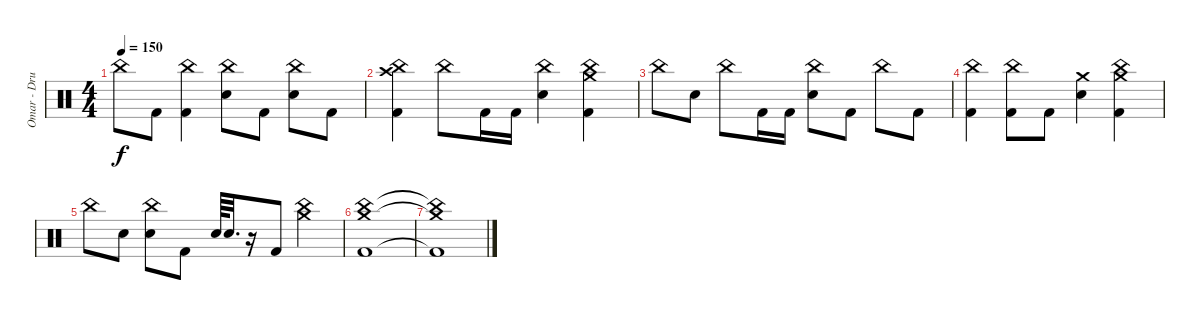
\track ("Omar - Drums" "Omar - Dru") {instrument percussion}
\staff {score}
\articulation defaults
\ts (4 4)
\tempo 150
\clef neutral
\ks c "China (hit)".8{dy f} "Kick (hit) 2".8
("China (hit)" "Kick (hit) 2").4 ("China (hit)" "Electric Snare (hit)").8 "Kick (hit) 2".8 ("China (hit)" "Electric Snare (hit)").8 "Kick (hit) 2".8 |
("China (hit)" "Crash high (hit)" "Kick (hit) 2").4 "China (hit)".8 "Kick (hit) 2".16 "Kick (hit) 2".16 ("China (hit)" "Electric Snare (hit)").4 ("China (hit)" "Crash medium (hit)" "Kick (hit) 2").4 |
"China (hit)".8 "Electric Snare (hit)".8 "China (hit)".8 "Kick (hit) 2".16 "Kick (hit) 2".16 ("China (hit)" "Electric Snare (hit)").8 "Kick (hit) 2".8 "China (hit)".8 "Kick (hit) 2".8 |
("China (hit)" "Kick (hit) 2").4 ("China (hit)" "Kick (hit) 2").8 "Kick (hit) 2".8 ("Crash medium (hit)" "Electric Snare (hit)").4 ("China (hit)" "Crash medium (hit)" "Kick (hit) 2").4 |
"China (hit)".8 "Electric Snare (hit)".8 ("China (hit)" "Electric Snare (hit)").8 "Kick (hit) 2".8 "Electric Snare (hit)".64 "Electric Snare (hit)".32{d} r.16 "Kick (hit) 2".8 ("China (hit)" "Crash medium (hit)").4 |
("China (hit)" "Crash medium (hit)" "Kick (hit) 2").1 |
("China (hit)"{t} "Crash medium (hit)"{t} "Kick (hit) 2"{t}).1
